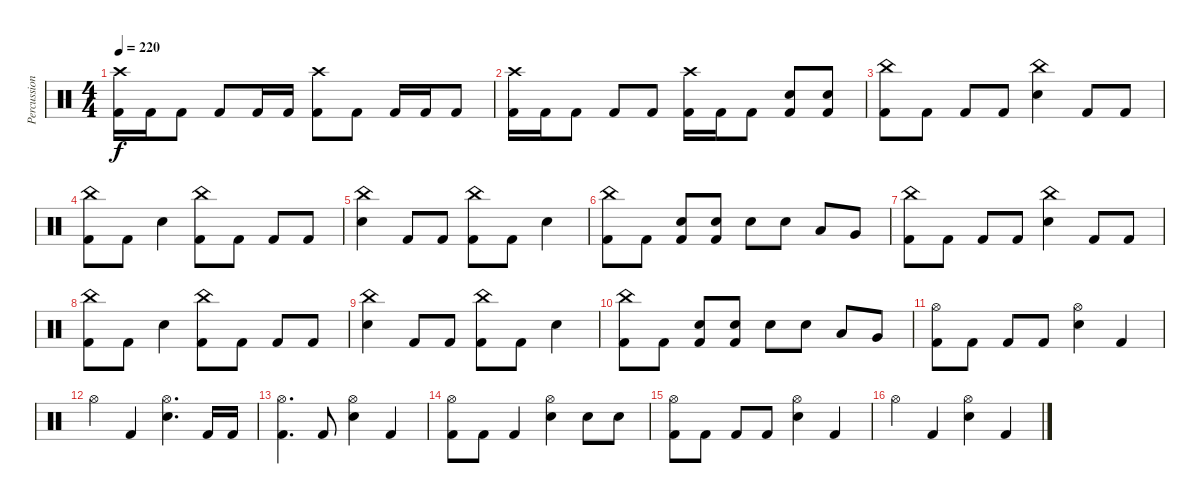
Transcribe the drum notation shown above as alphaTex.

\track ("Percussions" "Percussion") {instrument percussion}
\staff {score}
\articulation defaults
\ts (4 4)
\tempo 220
\clef neutral
\ks c
("Crash high (hit)" "Kick (hit) 2").16{dy f} "Kick (hit) 2".16 "Kick (hit) 2".8 "Kick (hit) 2".8 "Kick (hit) 2".16 "Kick (hit) 2".16 ("Crash high (hit)" "Kick (hit) 2").8 "Kick (hit) 2".8 "Kick (hit) 2".16 "Kick (hit) 2".16 "Kick (hit) 2".8 |
("Crash high (hit)" "Kick (hit) 2").16 "Kick (hit) 2".16 "Kick (hit) 2".8 "Kick (hit) 2".8 "Kick (hit) 2".8 ("Crash high (hit)" "Kick (hit) 2").16 "Kick (hit) 2".16 "Kick (hit) 2".8 ("Electric Snare (hit)" "Kick (hit) 2").8 ("Electric Snare (hit)" "Kick (hit) 2").8 |
("China (hit)" "Kick (hit) 2").8 "Kick (hit) 2".8 "Kick (hit) 2".8 "Kick (hit) 2".8 ("China (hit)" "Electric Snare (hit)").4 "Kick (hit) 2".8 "Kick (hit) 2".8 |
("China (hit)" "Kick (hit) 2").8 "Kick (hit) 2".8 "Electric Snare (hit)".4 ("China (hit)" "Kick (hit) 2").8 "Kick (hit) 2".8 "Kick (hit) 2".8 "Kick (hit) 2".8 |
("China (hit)" "Electric Snare (hit)").4 "Kick (hit) 2".8 "Kick (hit) 2".8 ("China (hit)" "Kick (hit) 2").8 "Kick (hit) 2".8 "Electric Snare (hit)".4 |
("China (hit)" "Kick (hit) 2").8 "Kick (hit) 2".8 ("Electric Snare (hit)" "Kick (hit) 2").8 ("Electric Snare (hit)" "Kick (hit) 2").8 "Electric Snare (hit)".8 "Electric Snare (hit)".8 "Low Tom (hit)".8 "Very Low Tom (hit)".8 |
("China (hit)" "Kick (hit) 2").8 "Kick (hit) 2".8 "Kick (hit) 2".8 "Kick (hit) 2".8 ("China (hit)" "Electric Snare (hit)").4 "Kick (hit) 2".8 "Kick (hit) 2".8 |
("China (hit)" "Kick (hit) 2").8 "Kick (hit) 2".8 "Electric Snare (hit)".4 ("China (hit)" "Kick (hit) 2").8 "Kick (hit) 2".8 "Kick (hit) 2".8 "Kick (hit) 2".8 |
("China (hit)" "Electric Snare (hit)").4 "Kick (hit) 2".8 "Kick (hit) 2".8 ("China (hit)" "Kick (hit) 2").8 "Kick (hit) 2".8 "Electric Snare (hit)".4 |
("China (hit)" "Kick (hit) 2").8 "Kick (hit) 2".8 ("Electric Snare (hit)" "Kick (hit) 2").8 ("Electric Snare (hit)" "Kick (hit) 2").8 "Electric Snare (hit)".8 "Electric Snare (hit)".8 "Low Tom (hit)".8 "Very Low Tom (hit)".8 |
("Hi-Hat (open)" "Kick (hit) 2").8 "Kick (hit) 2".8 "Kick (hit) 2".8 "Kick (hit) 2".8 ("Hi-Hat (open)" "Electric Snare (hit)").4 "Kick (hit) 2".4 |
"Hi-Hat (open)".4 "Kick (hit) 2".4 ("Hi-Hat (open)" "Electric Snare (hit)").4{d} "Kick (hit) 2".16 "Kick (hit) 2".16 |
("Hi-Hat (open)" "Kick (hit) 2").4{d} "Kick (hit) 2".8 ("Hi-Hat (open)" "Electric Snare (hit)").4 "Kick (hit) 2".4 |
("Hi-Hat (open)" "Kick (hit) 2").8 "Kick (hit) 2".8 "Kick (hit) 2".4 ("Hi-Hat (open)" "Electric Snare (hit)").4 "Electric Snare (hit)".8 "Electric Snare (hit)".8 |
("Hi-Hat (open)" "Kick (hit) 2").8 "Kick (hit) 2".8 "Kick (hit) 2".8 "Kick (hit) 2".8 ("Hi-Hat (open)" "Electric Snare (hit)").4 "Kick (hit) 2".4 |
"Hi-Hat (open)".4 "Kick (hit) 2".4 ("Hi-Hat (open)" "Electric Snare (hit)").4 "Kick (hit) 2".4
